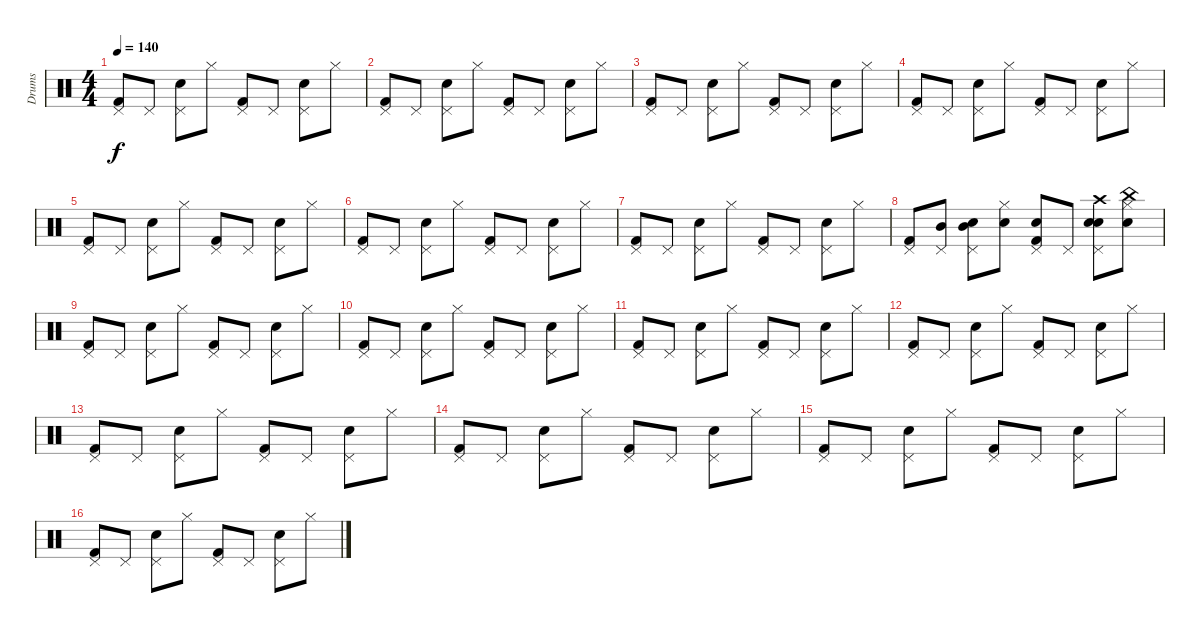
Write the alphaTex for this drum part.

\track ("Drums" "Drums") {instrument percussion}
\staff {score}
\articulation defaults
\ts (4 4)
\tempo 140
\clef neutral
\ks c
("Kick (hit) 2" "Pedal Hi-Hat (hit)").8{dy f} "Pedal Hi-Hat (hit)".8 ("Snare (hit) 2" "Pedal Hi-Hat (hit)").8 "Hi-Hat (closed)".8 ("Kick (hit) 2" "Pedal Hi-Hat (hit)").8 "Pedal Hi-Hat (hit)".8 ("Snare (hit) 2" "Pedal Hi-Hat (hit)").8 "Hi-Hat (closed)".8 |
("Kick (hit) 2" "Pedal Hi-Hat (hit)").8 "Pedal Hi-Hat (hit)".8 ("Snare (hit) 2" "Pedal Hi-Hat (hit)").8 "Hi-Hat (closed)".8 ("Kick (hit) 2" "Pedal Hi-Hat (hit)").8 "Pedal Hi-Hat (hit)".8 ("Snare (hit) 2" "Pedal Hi-Hat (hit)").8 "Hi-Hat (closed)".8 |
("Kick (hit) 2" "Pedal Hi-Hat (hit)").8 "Pedal Hi-Hat (hit)".8 ("Snare (hit) 2" "Pedal Hi-Hat (hit)").8 "Hi-Hat (closed)".8 ("Kick (hit) 2" "Pedal Hi-Hat (hit)").8 "Pedal Hi-Hat (hit)".8 ("Snare (hit) 2" "Pedal Hi-Hat (hit)").8 "Hi-Hat (closed)".8 |
("Kick (hit) 2" "Pedal Hi-Hat (hit)").8 "Pedal Hi-Hat (hit)".8 ("Snare (hit) 2" "Pedal Hi-Hat (hit)").8 "Hi-Hat (closed)".8 ("Kick (hit) 2" "Pedal Hi-Hat (hit)").8 "Pedal Hi-Hat (hit)".8 ("Snare (hit) 2" "Pedal Hi-Hat (hit)").8 "Hi-Hat (closed)".8 |
("Kick (hit) 2" "Pedal Hi-Hat (hit)").8 "Pedal Hi-Hat (hit)".8 ("Snare (hit) 2" "Pedal Hi-Hat (hit)").8 "Hi-Hat (closed)".8 ("Kick (hit) 2" "Pedal Hi-Hat (hit)").8 "Pedal Hi-Hat (hit)".8 ("Snare (hit) 2" "Pedal Hi-Hat (hit)").8 "Hi-Hat (closed)".8 |
("Kick (hit) 2" "Pedal Hi-Hat (hit)").8 "Pedal Hi-Hat (hit)".8 ("Snare (hit) 2" "Pedal Hi-Hat (hit)").8 "Hi-Hat (closed)".8 ("Kick (hit) 2" "Pedal Hi-Hat (hit)").8 "Pedal Hi-Hat (hit)".8 ("Snare (hit) 2" "Pedal Hi-Hat (hit)").8 "Hi-Hat (closed)".8 |
("Kick (hit) 2" "Pedal Hi-Hat (hit)").8 "Pedal Hi-Hat (hit)".8 ("Snare (hit) 2" "Pedal Hi-Hat (hit)").8 "Hi-Hat (closed)".8 ("Kick (hit) 2" "Pedal Hi-Hat (hit)").8 "Pedal Hi-Hat (hit)".8 ("Snare (hit) 2" "Pedal Hi-Hat (hit)").8 "Hi-Hat (closed)".8 |
("Kick (hit) 2" "Pedal Hi-Hat (hit)").8 ("Mid Tom (hit)" "Pedal Hi-Hat (hit)").8 ("Snare (hit) 2" "Mid Tom (hit)" "Pedal Hi-Hat (hit)").8 ("Snare (hit) 2" "Hi-Hat (closed)").8 ("Kick (hit) 2" "Snare (hit) 2" "Pedal Hi-Hat (hit)").8 "Pedal Hi-Hat (hit)".8 ("Snare (hit) 2" "Snare (hit) 2" "Pedal Hi-Hat (hit)" "Crash high (hit)").8 ("Snare (hit) 2" "Hi-Hat (closed)" "China (hit)").8 |
("Kick (hit) 2" "Pedal Hi-Hat (hit)").8 "Pedal Hi-Hat (hit)".8 ("Snare (hit) 2" "Pedal Hi-Hat (hit)").8 "Hi-Hat (closed)".8 ("Kick (hit) 2" "Pedal Hi-Hat (hit)").8 "Pedal Hi-Hat (hit)".8 ("Snare (hit) 2" "Pedal Hi-Hat (hit)").8 "Hi-Hat (closed)".8 |
("Kick (hit) 2" "Pedal Hi-Hat (hit)").8 "Pedal Hi-Hat (hit)".8 ("Snare (hit) 2" "Pedal Hi-Hat (hit)").8 "Hi-Hat (closed)".8 ("Kick (hit) 2" "Pedal Hi-Hat (hit)").8 "Pedal Hi-Hat (hit)".8 ("Snare (hit) 2" "Pedal Hi-Hat (hit)").8 "Hi-Hat (closed)".8 |
("Kick (hit) 2" "Pedal Hi-Hat (hit)").8 "Pedal Hi-Hat (hit)".8 ("Snare (hit) 2" "Pedal Hi-Hat (hit)").8 "Hi-Hat (closed)".8 ("Kick (hit) 2" "Pedal Hi-Hat (hit)").8 "Pedal Hi-Hat (hit)".8 ("Snare (hit) 2" "Pedal Hi-Hat (hit)").8 "Hi-Hat (closed)".8 |
("Kick (hit) 2" "Pedal Hi-Hat (hit)").8 "Pedal Hi-Hat (hit)".8 ("Snare (hit) 2" "Pedal Hi-Hat (hit)").8 "Hi-Hat (closed)".8 ("Kick (hit) 2" "Pedal Hi-Hat (hit)").8 "Pedal Hi-Hat (hit)".8 ("Snare (hit) 2" "Pedal Hi-Hat (hit)").8 "Hi-Hat (closed)".8 |
("Kick (hit) 2" "Pedal Hi-Hat (hit)").8 "Pedal Hi-Hat (hit)".8 ("Snare (hit) 2" "Pedal Hi-Hat (hit)").8 "Hi-Hat (closed)".8 ("Kick (hit) 2" "Pedal Hi-Hat (hit)").8 "Pedal Hi-Hat (hit)".8 ("Snare (hit) 2" "Pedal Hi-Hat (hit)").8 "Hi-Hat (closed)".8 |
("Kick (hit) 2" "Pedal Hi-Hat (hit)").8 "Pedal Hi-Hat (hit)".8 ("Snare (hit) 2" "Pedal Hi-Hat (hit)").8 "Hi-Hat (closed)".8 ("Kick (hit) 2" "Pedal Hi-Hat (hit)").8 "Pedal Hi-Hat (hit)".8 ("Snare (hit) 2" "Pedal Hi-Hat (hit)").8 "Hi-Hat (closed)".8 |
("Kick (hit) 2" "Pedal Hi-Hat (hit)").8 "Pedal Hi-Hat (hit)".8 ("Snare (hit) 2" "Pedal Hi-Hat (hit)").8 "Hi-Hat (closed)".8 ("Kick (hit) 2" "Pedal Hi-Hat (hit)").8 "Pedal Hi-Hat (hit)".8 ("Snare (hit) 2" "Pedal Hi-Hat (hit)").8 "Hi-Hat (closed)".8 |
("Kick (hit) 2" "Pedal Hi-Hat (hit)").8 "Pedal Hi-Hat (hit)".8 ("Snare (hit) 2" "Pedal Hi-Hat (hit)").8 "Hi-Hat (closed)".8 ("Kick (hit) 2" "Pedal Hi-Hat (hit)").8 "Pedal Hi-Hat (hit)".8 ("Snare (hit) 2" "Pedal Hi-Hat (hit)").8 "Hi-Hat (closed)".8
